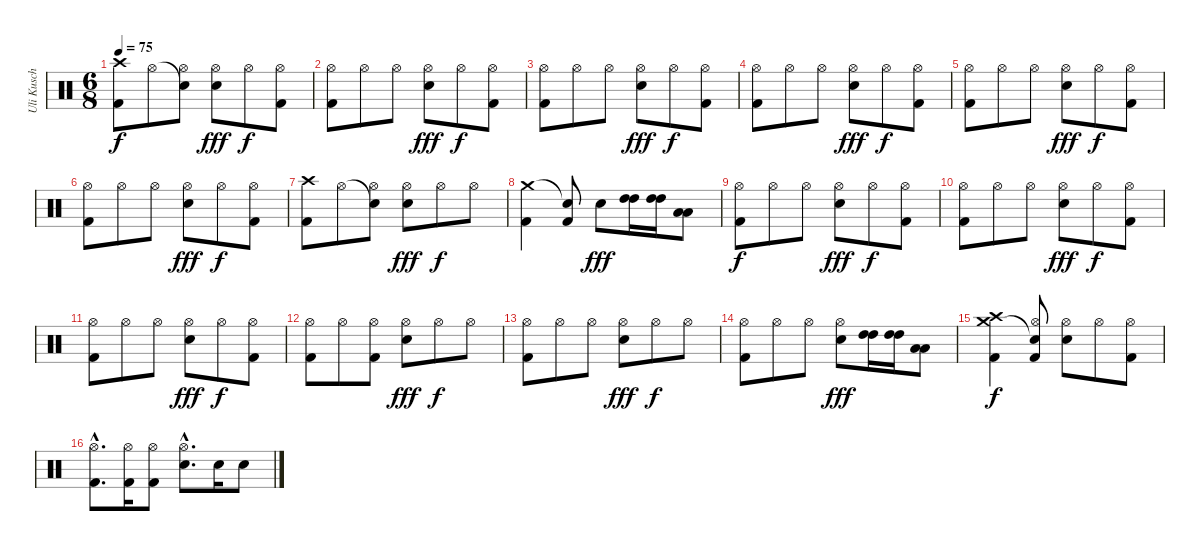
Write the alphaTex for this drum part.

\track ("Uli Kusch" "Uli Kusch") {instrument percussion}
\staff {score}
\articulation defaults
\ts (6 8)
\tempo 75
\clef neutral
\ks c
("Crash high (hit)" "Kick (hit) 2").8{dy f} "Hi-Hat (open)".8 ("Snare (hit)"{t} "Hi-Hat (open)").8 ("Hi-Hat (open)" "Electric Snare (hit)").8{dy fff} "Hi-Hat (open)".8{dy f} ("Hi-Hat (open)" "Kick (hit) 2").8 |
("Hi-Hat (open)" "Kick (hit) 2").8 "Hi-Hat (open)".8 "Hi-Hat (open)".8 ("Hi-Hat (open)" "Electric Snare (hit)").8{dy fff} "Hi-Hat (open)".8{dy f} ("Hi-Hat (open)" "Kick (hit) 2").8 |
("Hi-Hat (open)" "Kick (hit) 2").8 "Hi-Hat (open)".8 "Hi-Hat (open)".8 ("Hi-Hat (open)" "Electric Snare (hit)").8{dy fff} "Hi-Hat (open)".8{dy f} ("Hi-Hat (open)" "Kick (hit) 2").8 |
("Hi-Hat (open)" "Kick (hit) 2").8 "Hi-Hat (open)".8 "Hi-Hat (open)".8 ("Hi-Hat (open)" "Electric Snare (hit)").8{dy fff} "Hi-Hat (open)".8{dy f} ("Hi-Hat (open)" "Kick (hit) 2").8 |
("Hi-Hat (open)" "Kick (hit) 2").8 "Hi-Hat (open)".8 "Hi-Hat (open)".8 ("Hi-Hat (open)" "Electric Snare (hit)").8{dy fff} "Hi-Hat (open)".8{dy f} ("Hi-Hat (open)" "Kick (hit) 2").8 |
("Hi-Hat (open)" "Kick (hit) 2").8 "Hi-Hat (open)".8 "Hi-Hat (open)".8 ("Hi-Hat (open)" "Electric Snare (hit)").8{dy fff} "Hi-Hat (open)".8{dy f} ("Hi-Hat (open)" "Kick (hit) 2").8 |
("Crash high (hit)" "Kick (hit) 2").8 "Hi-Hat (open)".8 ("Snare (hit)"{t} "Hi-Hat (open)").8 ("Hi-Hat (open)" "Electric Snare (hit)").8{dy fff} "Hi-Hat (open)".8{dy f} "Hi-Hat (open)".8 |
("Crash medium (hit)" "Kick (hit) 2").4 ("Snare (hit)"{t} "Kick (hit) 2").8 "Electric Snare (hit)".8{dy fff} ("High Tom (hit)" "High Tom (hit)").16 ("High Tom (hit)" "High Tom (hit)").16 ("Low Tom (hit)" "Low Tom (hit)").8 |
("Hi-Hat (open)" "Kick (hit) 2").8{dy f} "Hi-Hat (open)".8 "Hi-Hat (open)".8 ("Hi-Hat (open)" "Electric Snare (hit)").8{dy fff} "Hi-Hat (open)".8{dy f} ("Hi-Hat (open)" "Kick (hit) 2").8 |
("Hi-Hat (open)" "Kick (hit) 2").8 "Hi-Hat (open)".8 "Hi-Hat (open)".8 ("Hi-Hat (open)" "Electric Snare (hit)").8{dy fff} "Hi-Hat (open)".8{dy f} ("Hi-Hat (open)" "Kick (hit) 2").8 |
("Hi-Hat (open)" "Kick (hit) 2").8 "Hi-Hat (open)".8 "Hi-Hat (open)".8 ("Hi-Hat (open)" "Electric Snare (hit)").8{dy fff} "Hi-Hat (open)".8{dy f} ("Hi-Hat (open)" "Kick (hit) 2").8 |
("Hi-Hat (open)" "Kick (hit) 2").8 "Hi-Hat (open)".8 ("Hi-Hat (open)" "Kick (hit) 2").8 ("Hi-Hat (open)" "Electric Snare (hit)").8{dy fff} "Hi-Hat (open)".8{dy f} "Hi-Hat (open)".8 |
("Hi-Hat (open)" "Kick (hit) 2").8 "Hi-Hat (open)".8 "Hi-Hat (open)".8 ("Hi-Hat (open)" "Electric Snare (hit)").8{dy fff} "Hi-Hat (open)".8{dy f} "Hi-Hat (open)".8 |
("Hi-Hat (open)" "Kick (hit) 2").8 "Hi-Hat (open)".8 "Hi-Hat (open)".8 ("Hi-Hat (open)" "Electric Snare (hit)").8{dy fff} ("High Tom (hit)" "High Tom (hit)").16 ("High Tom (hit)" "High Tom (hit)").16 ("Low Tom (hit)" "Low Tom (hit)").8 |
("Crash medium (hit)" "Crash high (hit)" "Kick (hit) 2").4{dy f} ("Snare (hit)"{t} "Hi-Hat (open)" "Kick (hit) 2").8 ("Hi-Hat (open)" "Electric Snare (hit)").8 "Hi-Hat (open)".8 ("Hi-Hat (open)" "Kick (hit) 2").8 |
("Hi-Hat (open)"{hac} "Kick (hit) 2"{hac}).8{d} ("Hi-Hat (open)" "Kick (hit) 2").16 ("Hi-Hat (open)" "Kick (hit) 2").8 ("Hi-Hat (open)"{hac} "Electric Snare (hit)"{hac}).8{d} "Electric Snare (hit)".16 "Electric Snare (hit)".8
